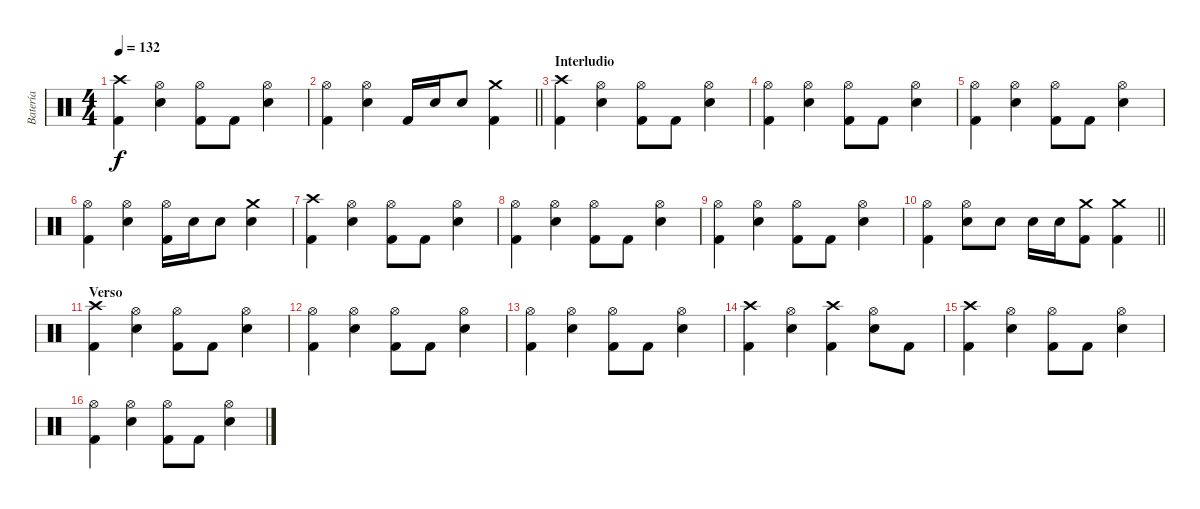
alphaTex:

\track ("Batería" "Batería") {instrument percussion}
\staff {score}
\articulation defaults
\ts (4 4)
\tempo 132
\clef neutral
\ks c
("Crash high (hit)" "Kick (hit) 2").4{dy f} ("Hi-Hat (open)" "Electric Snare (hit)").4 ("Kick (hit) 2" "Hi-Hat (open)").8 "Kick (hit) 2".8 ("Hi-Hat (open)" "Electric Snare (hit)").4 |
\barLineRight lightlight
("Hi-Hat (open)" "Kick (hit) 2").4 ("Hi-Hat (open)" "Electric Snare (hit)").4 "Kick (hit) 2".16 "Electric Snare (hit)".16 "Electric Snare (hit)".8 ("Kick (hit) 2" "Crash medium (hit)").4 |
\section ("" "Interludio")
("Crash high (hit)" "Kick (hit) 2").4 ("Hi-Hat (open)" "Electric Snare (hit)").4 ("Kick (hit) 2" "Hi-Hat (open)").8 "Kick (hit) 2".8 ("Hi-Hat (open)" "Electric Snare (hit)").4 |
("Hi-Hat (open)" "Kick (hit) 2").4 ("Hi-Hat (open)" "Electric Snare (hit)").4 ("Kick (hit) 2" "Hi-Hat (open)").8 "Kick (hit) 2".8 ("Hi-Hat (open)" "Electric Snare (hit)").4 |
("Hi-Hat (open)" "Kick (hit) 2").4 ("Hi-Hat (open)" "Electric Snare (hit)").4 ("Kick (hit) 2" "Hi-Hat (open)").8 "Kick (hit) 2".8 ("Hi-Hat (open)" "Electric Snare (hit)").4 |
("Hi-Hat (open)" "Kick (hit) 2").4 ("Hi-Hat (open)" "Electric Snare (hit)").4 ("Hi-Hat (open)" "Kick (hit) 2").16 "Electric Snare (hit)".16 "Electric Snare (hit)".8 ("Electric Snare (hit)" "Crash medium (hit)").4 |
("Crash high (hit)" "Kick (hit) 2").4 ("Hi-Hat (open)" "Electric Snare (hit)").4 ("Kick (hit) 2" "Hi-Hat (open)").8 "Kick (hit) 2".8 ("Hi-Hat (open)" "Electric Snare (hit)").4 |
("Hi-Hat (open)" "Kick (hit) 2").4 ("Hi-Hat (open)" "Electric Snare (hit)").4 ("Kick (hit) 2" "Hi-Hat (open)").8 "Kick (hit) 2".8 ("Hi-Hat (open)" "Electric Snare (hit)").4 |
("Hi-Hat (open)" "Kick (hit) 2").4 ("Hi-Hat (open)" "Electric Snare (hit)").4 ("Kick (hit) 2" "Hi-Hat (open)").8 "Kick (hit) 2".8 ("Hi-Hat (open)" "Electric Snare (hit)").4 |
\barLineRight lightlight
("Hi-Hat (open)" "Kick (hit) 2").4 ("Hi-Hat (open)" "Electric Snare (hit)").8 "Electric Snare (hit)".8 "Electric Snare (hit)".16 "Electric Snare (hit)".16 ("Kick (hit) 2" "Crash medium (hit)").8 ("Kick (hit) 2" "Crash medium (hit)").4 |
\section ("" "Verso")
("Crash high (hit)" "Kick (hit) 2").4 ("Hi-Hat (open)" "Electric Snare (hit)").4 ("Kick (hit) 2" "Hi-Hat (open)").8 "Kick (hit) 2".8 ("Hi-Hat (open)" "Electric Snare (hit)").4 |
("Hi-Hat (open)" "Kick (hit) 2").4 ("Hi-Hat (open)" "Electric Snare (hit)").4 ("Kick (hit) 2" "Hi-Hat (open)").8 "Kick (hit) 2".8 ("Hi-Hat (open)" "Electric Snare (hit)").4 |
("Hi-Hat (open)" "Kick (hit) 2").4 ("Hi-Hat (open)" "Electric Snare (hit)").4 ("Kick (hit) 2" "Hi-Hat (open)").8 "Kick (hit) 2".8 ("Hi-Hat (open)" "Electric Snare (hit)").4 |
("Crash high (hit)" "Kick (hit) 2").4 ("Hi-Hat (open)" "Electric Snare (hit)").4 ("Kick (hit) 2" "Crash high (hit)").4 ("Hi-Hat (open)" "Electric Snare (hit)").8 "Kick (hit) 2".8 |
("Crash high (hit)" "Kick (hit) 2").4 ("Hi-Hat (open)" "Electric Snare (hit)").4 ("Kick (hit) 2" "Hi-Hat (open)").8 "Kick (hit) 2".8 ("Hi-Hat (open)" "Electric Snare (hit)").4 |
("Hi-Hat (open)" "Kick (hit) 2").4 ("Hi-Hat (open)" "Electric Snare (hit)").4 ("Kick (hit) 2" "Hi-Hat (open)").8 "Kick (hit) 2".8 ("Hi-Hat (open)" "Electric Snare (hit)").4
